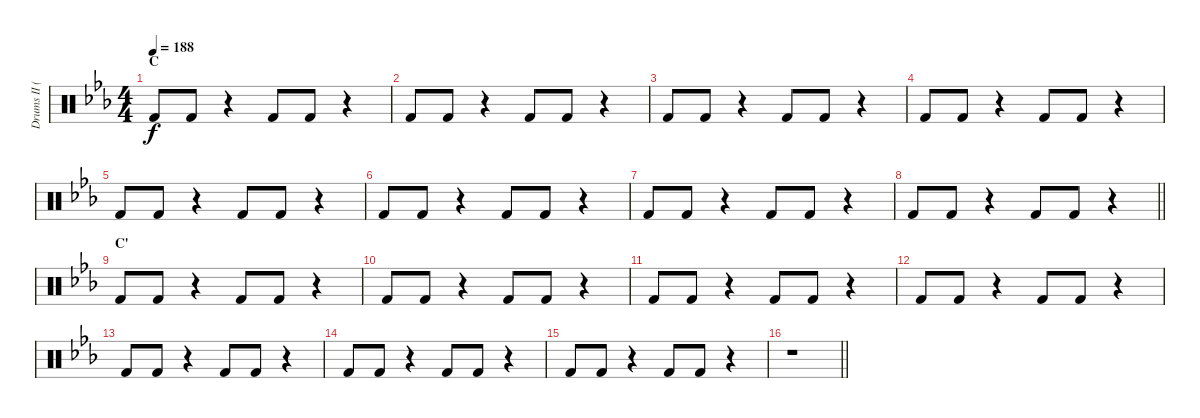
\track ("Drums II (RUKA)" "Drums II (") {instrument percussion}
\staff {score}
\articulation defaults
\ts (4 4)
\section ("" "C")
\tempo 188
\clef neutral
\ks eb "Kick (hit) 2".8{dy f} "Kick (hit) 2".8
r.4 "Kick (hit) 2".8 "Kick (hit) 2".8 r.4 |
"Kick (hit) 2".8 "Kick (hit) 2".8 r.4 "Kick (hit) 2".8 "Kick (hit) 2".8 r.4 |
"Kick (hit) 2".8 "Kick (hit) 2".8 r.4 "Kick (hit) 2".8 "Kick (hit) 2".8 r.4 |
"Kick (hit) 2".8 "Kick (hit) 2".8 r.4 "Kick (hit) 2".8 "Kick (hit) 2".8 r.4 |
"Kick (hit) 2".8 "Kick (hit) 2".8 r.4 "Kick (hit) 2".8 "Kick (hit) 2".8 r.4 |
"Kick (hit) 2".8 "Kick (hit) 2".8 r.4 "Kick (hit) 2".8 "Kick (hit) 2".8 r.4 |
"Kick (hit) 2".8 "Kick (hit) 2".8 r.4 "Kick (hit) 2".8 "Kick (hit) 2".8 r.4 |
\barLineRight lightlight "Kick (hit) 2".8 "Kick (hit) 2".8
r.4 "Kick (hit) 2".8 "Kick (hit) 2".8 r.4 |
\section ("" "C'")
"Kick (hit) 2".8 "Kick (hit) 2".8 r.4 "Kick (hit) 2".8 "Kick (hit) 2".8 r.4 |
"Kick (hit) 2".8 "Kick (hit) 2".8 r.4 "Kick (hit) 2".8 "Kick (hit) 2".8 r.4 |
"Kick (hit) 2".8 "Kick (hit) 2".8 r.4 "Kick (hit) 2".8 "Kick (hit) 2".8 r.4 |
"Kick (hit) 2".8 "Kick (hit) 2".8 r.4 "Kick (hit) 2".8 "Kick (hit) 2".8 r.4 |
"Kick (hit) 2".8 "Kick (hit) 2".8 r.4 "Kick (hit) 2".8 "Kick (hit) 2".8 r.4 |
"Kick (hit) 2".8 "Kick (hit) 2".8 r.4 "Kick (hit) 2".8 "Kick (hit) 2".8 r.4 |
"Kick (hit) 2".8 "Kick (hit) 2".8 r.4 "Kick (hit) 2".8 "Kick (hit) 2".8 r.4 |
\barLineRight lightlight
r.1
